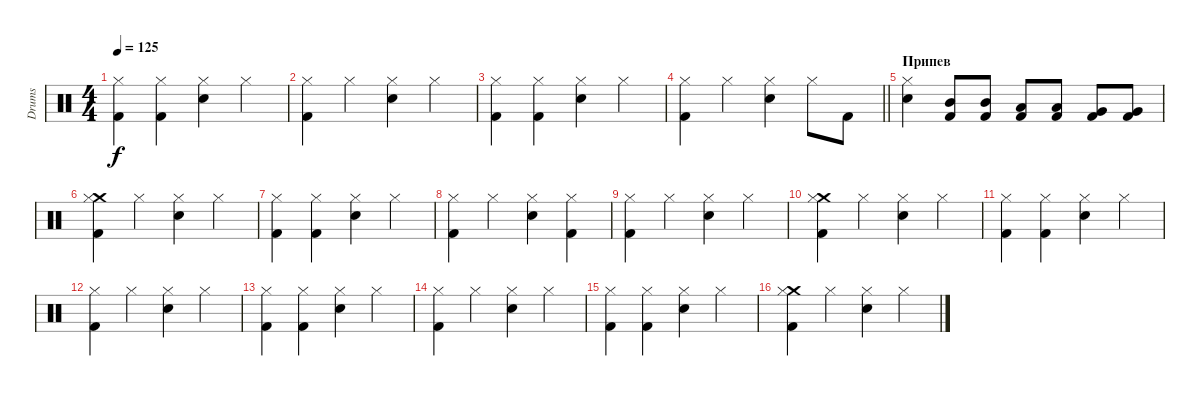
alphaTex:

\track ("Drums" "Drums") {instrument percussion}
\staff {score}
\articulation defaults
\ts (4 4)
\tempo 125
\clef neutral
\ks c
("Hi-Hat (closed)" "Kick (hit) 2").4{dy f} ("Hi-Hat (closed)" "Kick (hit) 2").4 ("Hi-Hat (closed)" "Snare (hit) 2").4 "Hi-Hat (closed)".4 |
("Hi-Hat (closed)" "Kick (hit) 2").4 "Hi-Hat (closed)".4 ("Hi-Hat (closed)" "Snare (hit) 2").4 "Hi-Hat (closed)".4 |
("Hi-Hat (closed)" "Kick (hit) 2").4 ("Hi-Hat (closed)" "Kick (hit) 2").4 ("Hi-Hat (closed)" "Snare (hit) 2").4 "Hi-Hat (closed)".4 |
\barLineRight lightlight
("Hi-Hat (closed)" "Kick (hit) 2").4 "Hi-Hat (closed)".4 ("Hi-Hat (closed)" "Snare (hit) 2").4 "Hi-Hat (closed)".8 "Kick (hit) 2".8 |
\section ("" "Припев")
("Hi-Hat (closed)" "Snare (hit) 2").4 ("Mid Tom (hit)" "Kick (hit) 2").8 ("Mid Tom (hit)" "Kick (hit) 2").8 ("Low Tom (hit)" "Kick (hit) 2").8 ("Low Tom (hit)" "Kick (hit) 2").8 ("Very Low Tom (hit)" "Kick (hit) 2").8 ("Very Low Tom (hit)" "Kick (hit) 2").8 |
("Crash medium (hit)" "Hi-Hat (closed)" "Kick (hit) 2").4 "Hi-Hat (closed)".4 ("Hi-Hat (closed)" "Snare (hit) 2").4 "Hi-Hat (closed)".4 |
("Hi-Hat (closed)" "Kick (hit) 2").4 ("Hi-Hat (closed)" "Kick (hit) 2").4 ("Hi-Hat (closed)" "Snare (hit) 2").4 "Hi-Hat (closed)".4 |
("Hi-Hat (closed)" "Kick (hit) 2").4 "Hi-Hat (closed)".4 ("Hi-Hat (closed)" "Snare (hit) 2").4 ("Hi-Hat (closed)" "Kick (hit) 2").4 |
("Hi-Hat (closed)" "Kick (hit) 2").4 "Hi-Hat (closed)".4 ("Hi-Hat (closed)" "Snare (hit) 2").4 "Hi-Hat (closed)".4 |
("Crash medium (hit)" "Hi-Hat (closed)" "Kick (hit) 2").4 "Hi-Hat (closed)".4 ("Hi-Hat (closed)" "Snare (hit) 2").4 "Hi-Hat (closed)".4 |
("Hi-Hat (closed)" "Kick (hit) 2").4 ("Hi-Hat (closed)" "Kick (hit) 2").4 ("Hi-Hat (closed)" "Snare (hit) 2").4 "Hi-Hat (closed)".4 |
("Hi-Hat (closed)" "Kick (hit) 2").4 "Hi-Hat (closed)".4 ("Hi-Hat (closed)" "Snare (hit) 2").4 "Hi-Hat (closed)".4 |
("Hi-Hat (closed)" "Kick (hit) 2").4 ("Hi-Hat (closed)" "Kick (hit) 2").4 ("Hi-Hat (closed)" "Snare (hit) 2").4 "Hi-Hat (closed)".4 |
("Hi-Hat (closed)" "Kick (hit) 2").4 "Hi-Hat (closed)".4 ("Hi-Hat (closed)" "Snare (hit) 2").4 "Hi-Hat (closed)".4 |
("Hi-Hat (closed)" "Kick (hit) 2").4 ("Hi-Hat (closed)" "Kick (hit) 2").4 ("Hi-Hat (closed)" "Snare (hit) 2").4 "Hi-Hat (closed)".4 |
("Crash medium (hit)" "Hi-Hat (closed)" "Kick (hit) 2").4 "Hi-Hat (closed)".4 ("Hi-Hat (closed)" "Snare (hit) 2").4 "Hi-Hat (closed)".4
